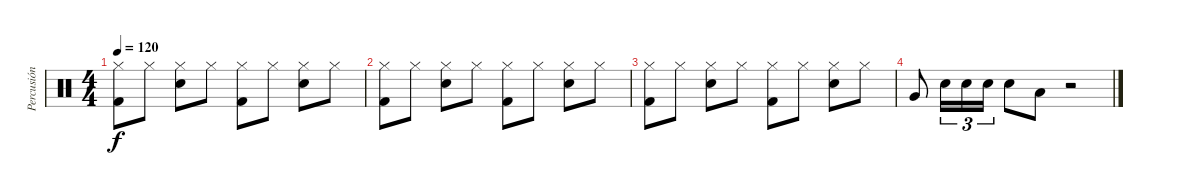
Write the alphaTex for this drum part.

\track ("Percusión" "Percusión") {instrument percussion}
\staff {score}
\articulation defaults
\ts (4 4)
\tempo 120
\clef neutral
\ks c
("Kick (hit) 2" "Hi-Hat (closed)").8{dy f} "Hi-Hat (closed)".8 ("Electric Snare (hit)" "Hi-Hat (closed)").8 "Hi-Hat (closed)".8 ("Kick (hit) 2" "Hi-Hat (closed)").8 "Hi-Hat (closed)".8 ("Electric Snare (hit)" "Hi-Hat (closed)").8 "Hi-Hat (closed)".8 |
("Kick (hit) 2" "Hi-Hat (closed)").8 "Hi-Hat (closed)".8 ("Electric Snare (hit)" "Hi-Hat (closed)").8 "Hi-Hat (closed)".8 ("Kick (hit) 2" "Hi-Hat (closed)").8 "Hi-Hat (closed)".8 ("Electric Snare (hit)" "Hi-Hat (closed)").8 "Hi-Hat (closed)".8 |
("Kick (hit) 2" "Hi-Hat (closed)").8 "Hi-Hat (closed)".8 ("Electric Snare (hit)" "Hi-Hat (closed)").8 "Hi-Hat (closed)".8 ("Kick (hit) 2" "Hi-Hat (closed)").8 "Hi-Hat (closed)".8 ("Electric Snare (hit)" "Hi-Hat (closed)").8 "Hi-Hat (closed)".8 |
"Very Low Tom (hit)".8 "Electric Snare (hit)".16{tu (3 2)} "Electric Snare (hit)".16{tu (3 2)} "Electric Snare (hit)".16{tu (3 2)} "Electric Snare (hit)".8 "Low Floor Tom (hit)".8 r.2
